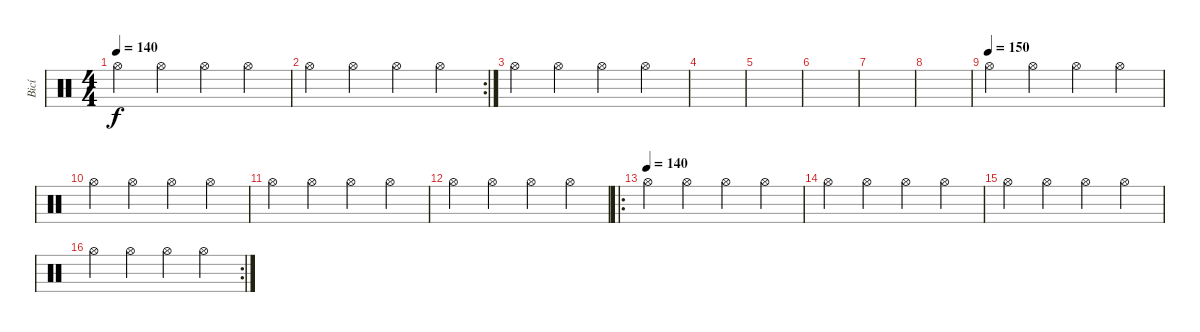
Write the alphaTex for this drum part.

\track ("Bicí" "Bicí") {instrument percussion}
\staff {score}
\articulation defaults
\ts (4 4)
\tempo 140
\clef neutral
\ks c "Hi-Hat (open)".4{dy f} "Hi-Hat (open)".4 "Hi-Hat (open)".4 "Hi-Hat (open)".4
|
\rc 2 "Hi-Hat (open)".4 "Hi-Hat (open)".4 "Hi-Hat (open)".4 "Hi-Hat (open)".4
|
"Hi-Hat (open)".4 "Hi-Hat (open)".4 "Hi-Hat (open)".4 "Hi-Hat (open)".4 |
|
|
|
|
|
\tempo (150)
"Hi-Hat (open)".4 "Hi-Hat (open)".4 "Hi-Hat (open)".4 "Hi-Hat (open)".4 |
"Hi-Hat (open)".4 "Hi-Hat (open)".4 "Hi-Hat (open)".4 "Hi-Hat (open)".4 |
"Hi-Hat (open)".4 "Hi-Hat (open)".4 "Hi-Hat (open)".4 "Hi-Hat (open)".4 |
"Hi-Hat (open)".4 "Hi-Hat (open)".4 "Hi-Hat (open)".4 "Hi-Hat (open)".4 |
\ro
\tempo (140)
"Hi-Hat (open)".4 "Hi-Hat (open)".4 "Hi-Hat (open)".4 "Hi-Hat (open)".4 |
"Hi-Hat (open)".4 "Hi-Hat (open)".4 "Hi-Hat (open)".4 "Hi-Hat (open)".4 |
"Hi-Hat (open)".4 "Hi-Hat (open)".4 "Hi-Hat (open)".4 "Hi-Hat (open)".4 |
\rc 2 "Hi-Hat (open)".4 "Hi-Hat (open)".4 "Hi-Hat (open)".4 "Hi-Hat (open)".4
